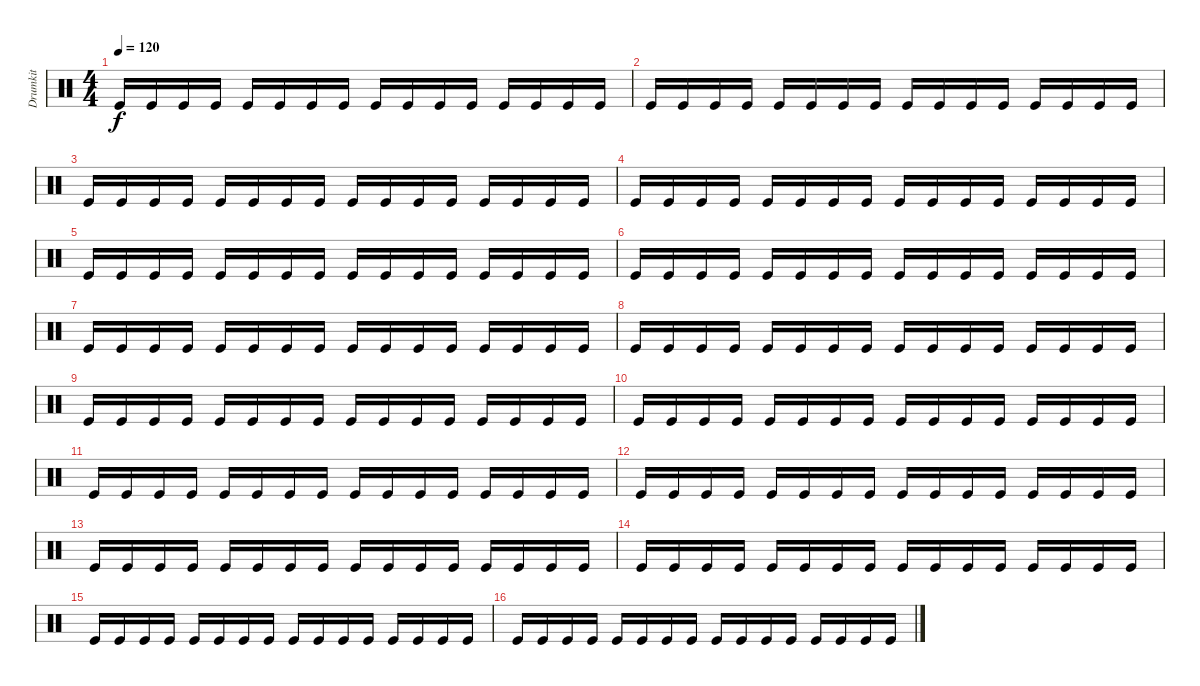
\track ("Drumkit" "Drumkit") {instrument percussion}
\staff {score}
\articulation defaults
\ts (4 4)
\tempo 120
\clef neutral
\ks c "Kick (hit)".16{dy f} "Kick (hit)".16 "Kick (hit)".16 "Kick (hit)".16 "Kick (hit)".16 "Kick (hit)".16 "Kick (hit)".16 "Kick (hit)".16 "Kick (hit)".16 "Kick (hit)".16 "Kick (hit)".16 "Kick (hit)".16 "Kick (hit)".16 "Kick (hit)".16 "Kick (hit)".16 "Kick (hit)".16
|
"Kick (hit)".16 "Kick (hit)".16 "Kick (hit)".16 "Kick (hit)".16 "Kick (hit)".16 "Kick (hit)".16 "Kick (hit)".16 "Kick (hit)".16 "Kick (hit)".16 "Kick (hit)".16 "Kick (hit)".16 "Kick (hit)".16 "Kick (hit)".16 "Kick (hit)".16 "Kick (hit)".16 "Kick (hit)".16 |
"Kick (hit)".16 "Kick (hit)".16 "Kick (hit)".16 "Kick (hit)".16 "Kick (hit)".16 "Kick (hit)".16 "Kick (hit)".16 "Kick (hit)".16 "Kick (hit)".16 "Kick (hit)".16 "Kick (hit)".16 "Kick (hit)".16 "Kick (hit)".16 "Kick (hit)".16 "Kick (hit)".16 "Kick (hit)".16 |
"Kick (hit)".16 "Kick (hit)".16 "Kick (hit)".16 "Kick (hit)".16 "Kick (hit)".16 "Kick (hit)".16 "Kick (hit)".16 "Kick (hit)".16 "Kick (hit)".16 "Kick (hit)".16 "Kick (hit)".16 "Kick (hit)".16 "Kick (hit)".16 "Kick (hit)".16 "Kick (hit)".16 "Kick (hit)".16 |
"Kick (hit)".16 "Kick (hit)".16 "Kick (hit)".16 "Kick (hit)".16 "Kick (hit)".16 "Kick (hit)".16 "Kick (hit)".16 "Kick (hit)".16 "Kick (hit)".16 "Kick (hit)".16 "Kick (hit)".16 "Kick (hit)".16 "Kick (hit)".16 "Kick (hit)".16 "Kick (hit)".16 "Kick (hit)".16 |
"Kick (hit)".16 "Kick (hit)".16 "Kick (hit)".16 "Kick (hit)".16 "Kick (hit)".16 "Kick (hit)".16 "Kick (hit)".16 "Kick (hit)".16 "Kick (hit)".16 "Kick (hit)".16 "Kick (hit)".16 "Kick (hit)".16 "Kick (hit)".16 "Kick (hit)".16 "Kick (hit)".16 "Kick (hit)".16 |
"Kick (hit)".16 "Kick (hit)".16 "Kick (hit)".16 "Kick (hit)".16 "Kick (hit)".16 "Kick (hit)".16 "Kick (hit)".16 "Kick (hit)".16 "Kick (hit)".16 "Kick (hit)".16 "Kick (hit)".16 "Kick (hit)".16 "Kick (hit)".16 "Kick (hit)".16 "Kick (hit)".16 "Kick (hit)".16 |
"Kick (hit)".16 "Kick (hit)".16 "Kick (hit)".16 "Kick (hit)".16 "Kick (hit)".16 "Kick (hit)".16 "Kick (hit)".16 "Kick (hit)".16 "Kick (hit)".16 "Kick (hit)".16 "Kick (hit)".16 "Kick (hit)".16 "Kick (hit)".16 "Kick (hit)".16 "Kick (hit)".16 "Kick (hit)".16 |
"Kick (hit)".16 "Kick (hit)".16 "Kick (hit)".16 "Kick (hit)".16 "Kick (hit)".16 "Kick (hit)".16 "Kick (hit)".16 "Kick (hit)".16 "Kick (hit)".16 "Kick (hit)".16 "Kick (hit)".16 "Kick (hit)".16 "Kick (hit)".16 "Kick (hit)".16 "Kick (hit)".16 "Kick (hit)".16 |
"Kick (hit)".16 "Kick (hit)".16 "Kick (hit)".16 "Kick (hit)".16 "Kick (hit)".16 "Kick (hit)".16 "Kick (hit)".16 "Kick (hit)".16 "Kick (hit)".16 "Kick (hit)".16 "Kick (hit)".16 "Kick (hit)".16 "Kick (hit)".16 "Kick (hit)".16 "Kick (hit)".16 "Kick (hit)".16 |
"Kick (hit)".16 "Kick (hit)".16 "Kick (hit)".16 "Kick (hit)".16 "Kick (hit)".16 "Kick (hit)".16 "Kick (hit)".16 "Kick (hit)".16 "Kick (hit)".16 "Kick (hit)".16 "Kick (hit)".16 "Kick (hit)".16 "Kick (hit)".16 "Kick (hit)".16 "Kick (hit)".16 "Kick (hit)".16 |
"Kick (hit)".16 "Kick (hit)".16 "Kick (hit)".16 "Kick (hit)".16 "Kick (hit)".16 "Kick (hit)".16 "Kick (hit)".16 "Kick (hit)".16 "Kick (hit)".16 "Kick (hit)".16 "Kick (hit)".16 "Kick (hit)".16 "Kick (hit)".16 "Kick (hit)".16 "Kick (hit)".16 "Kick (hit)".16 |
"Kick (hit)".16 "Kick (hit)".16 "Kick (hit)".16 "Kick (hit)".16 "Kick (hit)".16 "Kick (hit)".16 "Kick (hit)".16 "Kick (hit)".16 "Kick (hit)".16 "Kick (hit)".16 "Kick (hit)".16 "Kick (hit)".16 "Kick (hit)".16 "Kick (hit)".16 "Kick (hit)".16 "Kick (hit)".16 |
"Kick (hit)".16 "Kick (hit)".16 "Kick (hit)".16 "Kick (hit)".16 "Kick (hit)".16 "Kick (hit)".16 "Kick (hit)".16 "Kick (hit)".16 "Kick (hit)".16 "Kick (hit)".16 "Kick (hit)".16 "Kick (hit)".16 "Kick (hit)".16 "Kick (hit)".16 "Kick (hit)".16 "Kick (hit)".16 |
"Kick (hit)".16 "Kick (hit)".16 "Kick (hit)".16 "Kick (hit)".16 "Kick (hit)".16 "Kick (hit)".16 "Kick (hit)".16 "Kick (hit)".16 "Kick (hit)".16 "Kick (hit)".16 "Kick (hit)".16 "Kick (hit)".16 "Kick (hit)".16 "Kick (hit)".16 "Kick (hit)".16 "Kick (hit)".16 |
"Kick (hit)".16 "Kick (hit)".16 "Kick (hit)".16 "Kick (hit)".16 "Kick (hit)".16 "Kick (hit)".16 "Kick (hit)".16 "Kick (hit)".16 "Kick (hit)".16 "Kick (hit)".16 "Kick (hit)".16 "Kick (hit)".16 "Kick (hit)".16 "Kick (hit)".16 "Kick (hit)".16 "Kick (hit)".16
